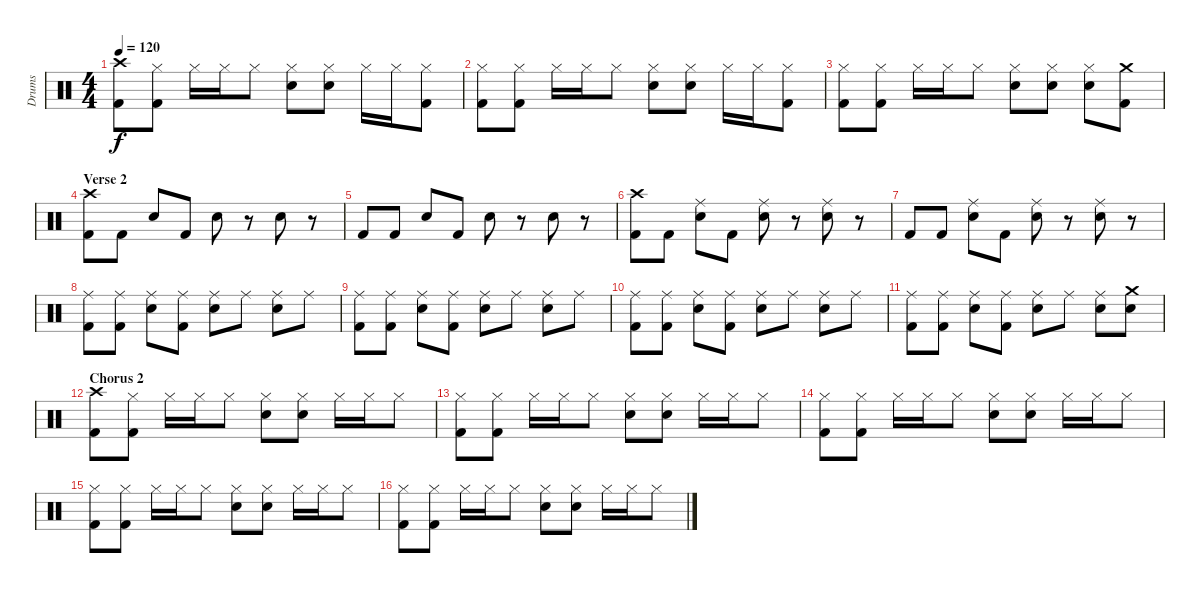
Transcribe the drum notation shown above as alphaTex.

\track ("Drums" "Drums") {instrument percussion}
\staff {score}
\articulation defaults
\ts (4 4)
\tempo 120
\clef neutral
\ks c
("Crash high (hit)" "Kick (hit) 2").8{dy f} ("Hi-Hat (closed)" "Kick (hit) 2").8 "Hi-Hat (closed)".16 "Hi-Hat (closed)".16 "Hi-Hat (closed)".8 ("Hi-Hat (closed)" "Snare (hit) 2").8 ("Hi-Hat (closed)" "Snare (hit) 2").8 "Hi-Hat (closed)".16 "Hi-Hat (closed)".16 ("Hi-Hat (closed)" "Kick (hit) 2").8 |
("Hi-Hat (closed)" "Kick (hit) 2").8 ("Hi-Hat (closed)" "Kick (hit) 2").8 "Hi-Hat (closed)".16 "Hi-Hat (closed)".16 "Hi-Hat (closed)".8 ("Hi-Hat (closed)" "Snare (hit) 2").8 ("Hi-Hat (closed)" "Snare (hit) 2").8 "Hi-Hat (closed)".16 "Hi-Hat (closed)".16 ("Hi-Hat (closed)" "Kick (hit) 2").8 |
("Hi-Hat (closed)" "Kick (hit) 2").8 ("Hi-Hat (closed)" "Kick (hit) 2").8 "Hi-Hat (closed)".16 "Hi-Hat (closed)".16 "Hi-Hat (closed)".8 ("Hi-Hat (closed)" "Snare (hit) 2").8 ("Hi-Hat (closed)" "Snare (hit) 2").8 ("Hi-Hat (closed)" "Snare (hit) 2").8 ("Crash medium (hit)" "Kick (hit) 2").8 |
\section ("" "Verse 2")
("Crash high (hit)" "Kick (hit) 2").8 "Kick (hit) 2".8 "Snare (hit) 2".8 "Kick (hit) 2".8 "Snare (hit) 2".8 r.8 "Snare (hit) 2".8 r.8 |
"Kick (hit) 2".8 "Kick (hit) 2".8 "Snare (hit) 2".8 "Kick (hit) 2".8 "Snare (hit) 2".8 r.8 "Snare (hit) 2".8 r.8 |
("Crash high (hit)" "Kick (hit) 2").8 "Kick (hit) 2".8 ("Ride (middle)" "Snare (hit) 2").8 "Kick (hit) 2".8 ("Ride (middle)" "Snare (hit) 2").8 r.8 ("Ride (middle)" "Snare (hit) 2").8 r.8 |
"Kick (hit) 2".8 "Kick (hit) 2".8 ("Ride (middle)" "Snare (hit) 2").8 "Kick (hit) 2".8 ("Ride (middle)" "Snare (hit) 2").8 r.8 ("Ride (middle)" "Snare (hit) 2").8 r.8 |
("Ride (middle)" "Kick (hit) 2").8 ("Ride (middle)" "Kick (hit) 2").8 ("Ride (middle)" "Snare (hit) 2").8 ("Ride (middle)" "Kick (hit) 2").8 ("Ride (middle)" "Snare (hit) 2").8 "Ride (middle)".8 ("Ride (middle)" "Snare (hit) 2").8 "Ride (middle)".8 |
("Ride (middle)" "Kick (hit) 2").8 ("Ride (middle)" "Kick (hit) 2").8 ("Ride (middle)" "Snare (hit) 2").8 ("Ride (middle)" "Kick (hit) 2").8 ("Ride (middle)" "Snare (hit) 2").8 "Ride (middle)".8 ("Ride (middle)" "Snare (hit) 2").8 "Ride (middle)".8 |
("Ride (middle)" "Kick (hit) 2").8 ("Ride (middle)" "Kick (hit) 2").8 ("Ride (middle)" "Snare (hit) 2").8 ("Ride (middle)" "Kick (hit) 2").8 ("Ride (middle)" "Snare (hit) 2").8 "Ride (middle)".8 ("Ride (middle)" "Snare (hit) 2").8 "Ride (middle)".8 |
("Ride (middle)" "Kick (hit) 2").8 ("Ride (middle)" "Kick (hit) 2").8 ("Ride (middle)" "Snare (hit) 2").8 ("Ride (middle)" "Kick (hit) 2").8 ("Ride (middle)" "Snare (hit) 2").8 "Ride (middle)".8 ("Ride (middle)" "Snare (hit) 2").8 ("Crash medium (hit)" "Snare (hit) 2").8 |
\section ("" "Chorus 2")
("Crash high (hit)" "Kick (hit) 2").8 ("Hi-Hat (closed)" "Kick (hit) 2").8 "Hi-Hat (closed)".16 "Hi-Hat (closed)".16 "Hi-Hat (closed)".8 ("Hi-Hat (closed)" "Snare (hit) 2").8 ("Hi-Hat (closed)" "Snare (hit) 2").8 "Hi-Hat (closed)".16 "Hi-Hat (closed)".16 "Hi-Hat (closed)".8 |
("Hi-Hat (closed)" "Kick (hit) 2").8 ("Hi-Hat (closed)" "Kick (hit) 2").8 "Hi-Hat (closed)".16 "Hi-Hat (closed)".16 "Hi-Hat (closed)".8 ("Hi-Hat (closed)" "Snare (hit) 2").8 ("Hi-Hat (closed)" "Snare (hit) 2").8 "Hi-Hat (closed)".16 "Hi-Hat (closed)".16 "Hi-Hat (closed)".8 |
("Hi-Hat (closed)" "Kick (hit) 2").8 ("Hi-Hat (closed)" "Kick (hit) 2").8 "Hi-Hat (closed)".16 "Hi-Hat (closed)".16 "Hi-Hat (closed)".8 ("Hi-Hat (closed)" "Snare (hit) 2").8 ("Hi-Hat (closed)" "Snare (hit) 2").8 "Hi-Hat (closed)".16 "Hi-Hat (closed)".16 "Hi-Hat (closed)".8 |
("Hi-Hat (closed)" "Kick (hit) 2").8 ("Hi-Hat (closed)" "Kick (hit) 2").8 "Hi-Hat (closed)".16 "Hi-Hat (closed)".16 "Hi-Hat (closed)".8 ("Hi-Hat (closed)" "Snare (hit) 2").8 ("Hi-Hat (closed)" "Snare (hit) 2").8 "Hi-Hat (closed)".16 "Hi-Hat (closed)".16 "Hi-Hat (closed)".8 |
("Hi-Hat (closed)" "Kick (hit) 2").8 ("Hi-Hat (closed)" "Kick (hit) 2").8 "Hi-Hat (closed)".16 "Hi-Hat (closed)".16 "Hi-Hat (closed)".8 ("Hi-Hat (closed)" "Snare (hit) 2").8 ("Hi-Hat (closed)" "Snare (hit) 2").8 "Hi-Hat (closed)".16 "Hi-Hat (closed)".16 "Hi-Hat (closed)".8
